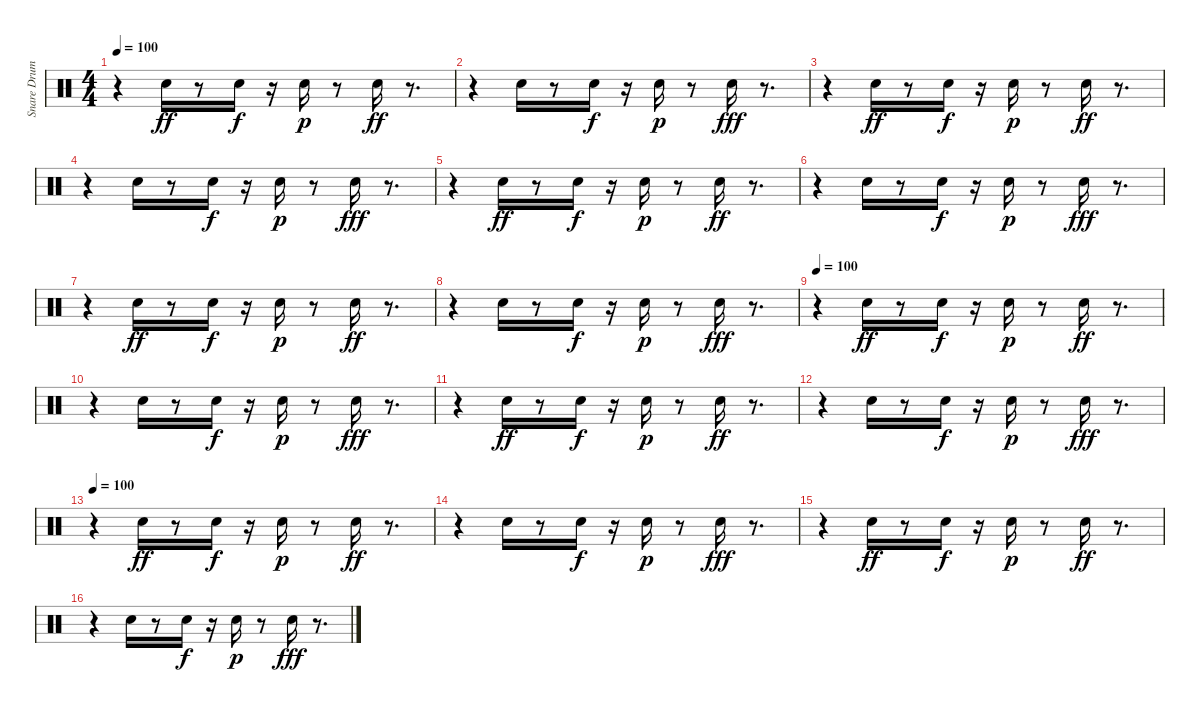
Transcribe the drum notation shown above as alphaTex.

\track ("Snare Drums" "Snare Drum") {instrument percussion}
\staff {score}
\articulation defaults
\ts (4 4)
\tempo 100
\clef neutral
\ks c
r.4{dy mp} "Snare (hit) 2".16{dy ff} r.8 "Electric Snare (hit)".16{dy f} r.16 "Electric Snare (hit)".16{dy p} r.8 "Snare (hit) 2".16{dy ff} r.8{d} |
r.4 "Snare (hit) 2".16 r.8 "Electric Snare (hit)".16{dy f} r.16 "Electric Snare (hit)".16{dy p} r.8 "Snare (hit) 2".16{dy fff} r.8{d} |
r.4 "Snare (hit) 2".16{dy ff} r.8 "Electric Snare (hit)".16{dy f} r.16 "Electric Snare (hit)".16{dy p} r.8 "Snare (hit) 2".16{dy ff} r.8{d} |
r.4 "Snare (hit) 2".16 r.8 "Electric Snare (hit)".16{dy f} r.16 "Electric Snare (hit)".16{dy p} r.8 "Snare (hit) 2".16{dy fff} r.8{d} |
r.4 "Snare (hit) 2".16{dy ff} r.8 "Electric Snare (hit)".16{dy f} r.16 "Electric Snare (hit)".16{dy p} r.8 "Snare (hit) 2".16{dy ff} r.8{d} |
r.4 "Snare (hit) 2".16 r.8 "Electric Snare (hit)".16{dy f} r.16 "Electric Snare (hit)".16{dy p} r.8 "Snare (hit) 2".16{dy fff} r.8{d} |
r.4 "Snare (hit) 2".16{dy ff} r.8 "Electric Snare (hit)".16{dy f} r.16 "Electric Snare (hit)".16{dy p} r.8 "Snare (hit) 2".16{dy ff} r.8{d} |
r.4 "Snare (hit) 2".16 r.8 "Electric Snare (hit)".16{dy f} r.16 "Electric Snare (hit)".16{dy p} r.8 "Snare (hit) 2".16{dy fff} r.8{d} |
\tempo 100
r.4 "Snare (hit) 2".16{dy ff} r.8 "Electric Snare (hit)".16{dy f} r.16 "Electric Snare (hit)".16{dy p} r.8 "Snare (hit) 2".16{dy ff} r.8{d} |
r.4 "Snare (hit) 2".16 r.8 "Electric Snare (hit)".16{dy f} r.16 "Electric Snare (hit)".16{dy p} r.8 "Snare (hit) 2".16{dy fff} r.8{d} |
r.4 "Snare (hit) 2".16{dy ff} r.8 "Electric Snare (hit)".16{dy f} r.16 "Electric Snare (hit)".16{dy p} r.8 "Snare (hit) 2".16{dy ff} r.8{d} |
r.4 "Snare (hit) 2".16 r.8 "Electric Snare (hit)".16{dy f} r.16 "Electric Snare (hit)".16{dy p} r.8 "Snare (hit) 2".16{dy fff} r.8{d} |
\tempo 100
r.4 "Snare (hit) 2".16{dy ff} r.8 "Electric Snare (hit)".16{dy f} r.16 "Electric Snare (hit)".16{dy p} r.8 "Snare (hit) 2".16{dy ff} r.8{d} |
r.4 "Snare (hit) 2".16 r.8 "Electric Snare (hit)".16{dy f} r.16 "Electric Snare (hit)".16{dy p} r.8 "Snare (hit) 2".16{dy fff} r.8{d} |
r.4 "Snare (hit) 2".16{dy ff} r.8 "Electric Snare (hit)".16{dy f} r.16 "Electric Snare (hit)".16{dy p} r.8 "Snare (hit) 2".16{dy ff} r.8{d} |
r.4 "Snare (hit) 2".16 r.8 "Electric Snare (hit)".16{dy f} r.16 "Electric Snare (hit)".16{dy p} r.8 "Snare (hit) 2".16{dy fff} r.8{d}
